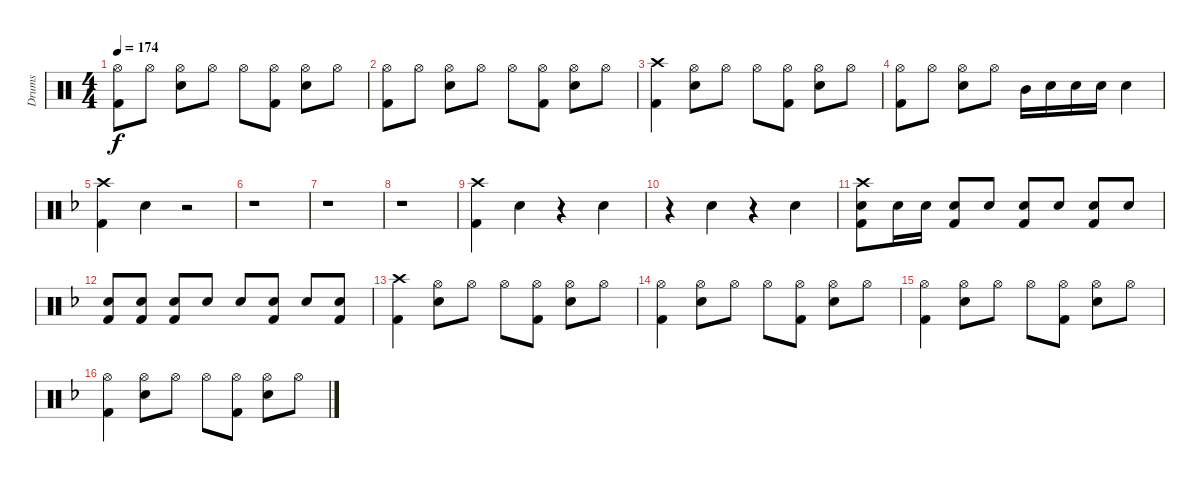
\track ("Drums" "Drums") {instrument percussion}
\staff {score}
\articulation defaults
\ts (4 4)
\tempo 174
\clef neutral
\ks aminor
("Kick (hit) 2" "Hi-Hat (open)").8{dy f} "Hi-Hat (open)".8 ("Snare (hit) 2" "Hi-Hat (open)").8 "Hi-Hat (open)".8 "Hi-Hat (open)".8 ("Kick (hit) 2" "Hi-Hat (open)").8 ("Snare (hit) 2" "Hi-Hat (open)").8 "Hi-Hat (open)".8 |
("Kick (hit) 2" "Hi-Hat (open)").8 "Hi-Hat (open)".8 ("Snare (hit) 2" "Hi-Hat (open)").8 "Hi-Hat (open)".8 "Hi-Hat (open)".8 ("Kick (hit) 2" "Hi-Hat (open)").8 ("Snare (hit) 2" "Hi-Hat (open)").8 "Hi-Hat (open)".8 |
("Kick (hit) 2" "Crash high (hit)").4 ("Snare (hit) 2" "Hi-Hat (open)").8 "Hi-Hat (open)".8 "Hi-Hat (open)".8 ("Kick (hit) 2" "Hi-Hat (open)").8 ("Snare (hit) 2" "Hi-Hat (open)").8 "Hi-Hat (open)".8 |
("Kick (hit) 2" "Hi-Hat (open)").8 "Hi-Hat (open)".8 ("Snare (hit) 2" "Hi-Hat (open)").8 "Hi-Hat (open)".8 "Mid Tom (hit)".16 "Snare (hit) 2".16 "Snare (hit) 2".16 "Snare (hit) 2".16 "Snare (hit) 2".4 |
\ks dminor
("Kick (hit) 2" "Crash high (hit)").4 "Snare (hit) 2".4 r.2 |
r.1 |
r.1 |
r.1 |
("Kick (hit) 2" "Crash high (hit)").4 "Snare (hit) 2".4 r.4 "Snare (hit) 2".4 |
r.4 "Snare (hit) 2".4 r.4 "Snare (hit) 2".4 |
("Kick (hit) 2" "Snare (hit) 2" "Crash high (hit)").8 "Snare (hit) 2".16 "Snare (hit) 2".16 ("Kick (hit) 2" "Snare (hit) 2").8 "Snare (hit) 2".8 ("Kick (hit) 2" "Snare (hit) 2").8 "Snare (hit) 2".8 ("Kick (hit) 2" "Snare (hit) 2").8 "Snare (hit) 2".8 |
("Kick (hit) 2" "Snare (hit) 2").8 ("Kick (hit) 2" "Snare (hit) 2").8 ("Kick (hit) 2" "Snare (hit) 2").8 "Snare (hit) 2".8 "Snare (hit) 2".8 ("Kick (hit) 2" "Snare (hit) 2").8 "Snare (hit) 2".8 ("Kick (hit) 2" "Snare (hit) 2").8 |
("Kick (hit) 2" "Crash high (hit)").4 ("Snare (hit) 2" "Hi-Hat (open)").8 "Hi-Hat (open)".8 "Hi-Hat (open)".8 ("Kick (hit) 2" "Hi-Hat (open)").8 ("Snare (hit) 2" "Hi-Hat (open)").8 "Hi-Hat (open)".8 |
("Kick (hit) 2" "Hi-Hat (open)").4 ("Snare (hit) 2" "Hi-Hat (open)").8 "Hi-Hat (open)".8 "Hi-Hat (open)".8 ("Kick (hit) 2" "Hi-Hat (open)").8 ("Snare (hit) 2" "Hi-Hat (open)").8 "Hi-Hat (open)".8 |
("Kick (hit) 2" "Hi-Hat (open)").4 ("Snare (hit) 2" "Hi-Hat (open)").8 "Hi-Hat (open)".8 "Hi-Hat (open)".8 ("Kick (hit) 2" "Hi-Hat (open)").8 ("Snare (hit) 2" "Hi-Hat (open)").8 "Hi-Hat (open)".8 |
("Kick (hit) 2" "Hi-Hat (open)").4 ("Snare (hit) 2" "Hi-Hat (open)").8 "Hi-Hat (open)".8 "Hi-Hat (open)".8 ("Kick (hit) 2" "Hi-Hat (open)").8 ("Snare (hit) 2" "Hi-Hat (open)").8 "Hi-Hat (open)".8
